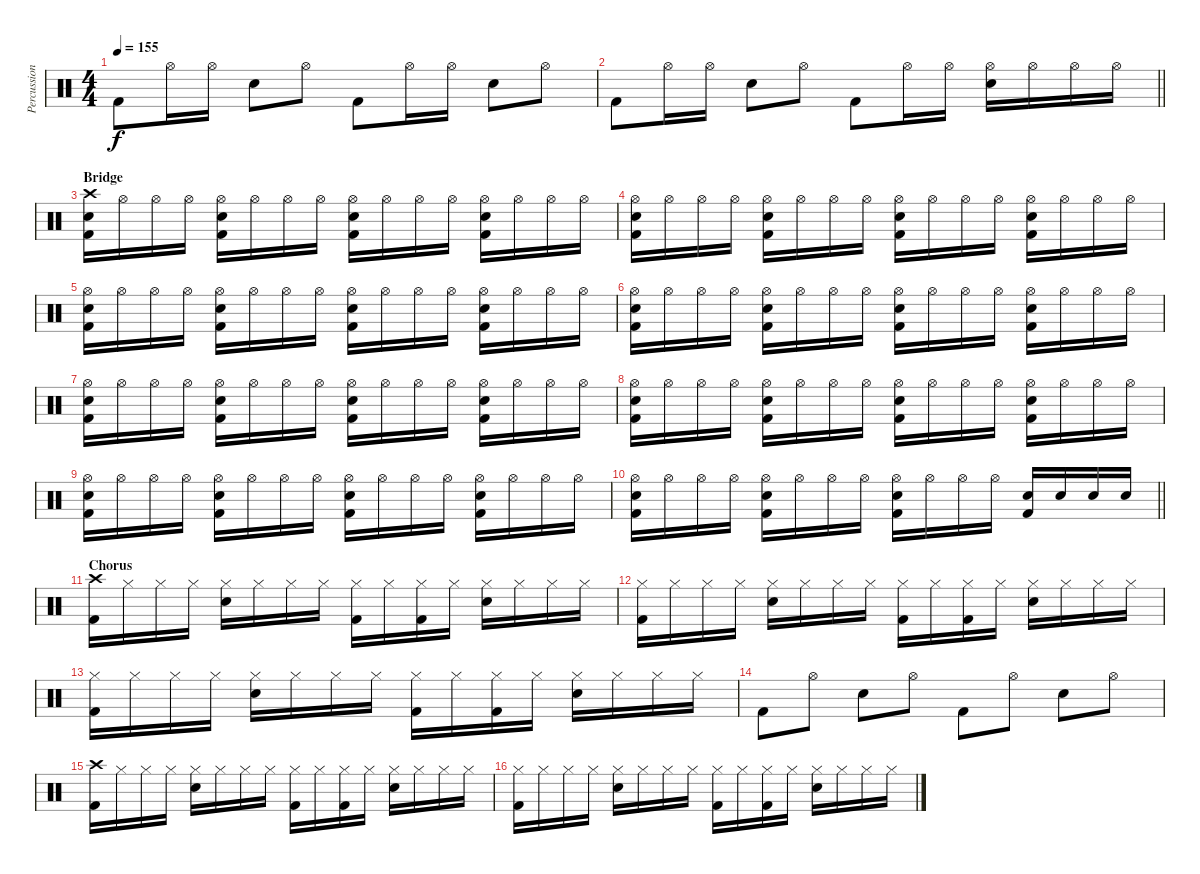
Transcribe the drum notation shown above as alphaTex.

\track ("Percussioni" "Percussion") {instrument percussion}
\staff {score}
\articulation defaults
\ts (4 4)
\tempo 155
\clef neutral
\ks c "Kick (hit) 2".8{dy f} "Hi-Hat (open)".16 "Hi-Hat (open)".16 "Snare (hit) 2".8 "Hi-Hat (open)".8 "Kick (hit) 2".8 "Hi-Hat (open)".16 "Hi-Hat (open)".16 "Snare (hit) 2".8 "Hi-Hat (open)".8
|
\barLineRight lightlight "Kick (hit) 2".8 "Hi-Hat (open)".16 "Hi-Hat (open)".16 "Snare (hit) 2".8 "Hi-Hat (open)".8 "Kick (hit) 2".8 "Hi-Hat (open)".16 "Hi-Hat (open)".16
("Hi-Hat (open)" "Snare (hit) 2").16 "Hi-Hat (open)".16 "Hi-Hat (open)".16 "Hi-Hat (open)".16 |
\section ("" "Bridge")
("Crash high (hit)" "Snare (hit) 2" "Kick (hit) 2").16 "Hi-Hat (open)".16 "Hi-Hat (open)".16 "Hi-Hat (open)".16 ("Hi-Hat (open)" "Snare (hit) 2" "Kick (hit) 2").16 "Hi-Hat (open)".16 "Hi-Hat (open)".16 "Hi-Hat (open)".16 ("Hi-Hat (open)" "Snare (hit) 2" "Kick (hit) 2").16 "Hi-Hat (open)".16 "Hi-Hat (open)".16 "Hi-Hat (open)".16 ("Hi-Hat (open)" "Snare (hit) 2" "Kick (hit) 2").16 "Hi-Hat (open)".16 "Hi-Hat (open)".16 "Hi-Hat (open)".16 |
("Hi-Hat (open)" "Snare (hit) 2" "Kick (hit) 2").16 "Hi-Hat (open)".16 "Hi-Hat (open)".16 "Hi-Hat (open)".16 ("Hi-Hat (open)" "Snare (hit) 2" "Kick (hit) 2").16 "Hi-Hat (open)".16 "Hi-Hat (open)".16 "Hi-Hat (open)".16 ("Hi-Hat (open)" "Snare (hit) 2" "Kick (hit) 2").16 "Hi-Hat (open)".16 "Hi-Hat (open)".16 "Hi-Hat (open)".16 ("Hi-Hat (open)" "Snare (hit) 2" "Kick (hit) 2").16 "Hi-Hat (open)".16 "Hi-Hat (open)".16 "Hi-Hat (open)".16 |
("Hi-Hat (open)" "Snare (hit) 2" "Kick (hit) 2").16 "Hi-Hat (open)".16 "Hi-Hat (open)".16 "Hi-Hat (open)".16 ("Hi-Hat (open)" "Snare (hit) 2" "Kick (hit) 2").16 "Hi-Hat (open)".16 "Hi-Hat (open)".16 "Hi-Hat (open)".16 ("Hi-Hat (open)" "Snare (hit) 2" "Kick (hit) 2").16 "Hi-Hat (open)".16 "Hi-Hat (open)".16 "Hi-Hat (open)".16 ("Hi-Hat (open)" "Snare (hit) 2" "Kick (hit) 2").16 "Hi-Hat (open)".16 "Hi-Hat (open)".16 "Hi-Hat (open)".16 |
("Hi-Hat (open)" "Snare (hit) 2" "Kick (hit) 2").16 "Hi-Hat (open)".16 "Hi-Hat (open)".16 "Hi-Hat (open)".16 ("Hi-Hat (open)" "Snare (hit) 2" "Kick (hit) 2").16 "Hi-Hat (open)".16 "Hi-Hat (open)".16 "Hi-Hat (open)".16 ("Hi-Hat (open)" "Snare (hit) 2" "Kick (hit) 2").16 "Hi-Hat (open)".16 "Hi-Hat (open)".16 "Hi-Hat (open)".16 ("Hi-Hat (open)" "Snare (hit) 2" "Kick (hit) 2").16 "Hi-Hat (open)".16 "Hi-Hat (open)".16 "Hi-Hat (open)".16 |
("Hi-Hat (open)" "Snare (hit) 2" "Kick (hit) 2").16 "Hi-Hat (open)".16 "Hi-Hat (open)".16 "Hi-Hat (open)".16 ("Hi-Hat (open)" "Snare (hit) 2" "Kick (hit) 2").16 "Hi-Hat (open)".16 "Hi-Hat (open)".16 "Hi-Hat (open)".16 ("Hi-Hat (open)" "Snare (hit) 2" "Kick (hit) 2").16 "Hi-Hat (open)".16 "Hi-Hat (open)".16 "Hi-Hat (open)".16 ("Hi-Hat (open)" "Snare (hit) 2" "Kick (hit) 2").16 "Hi-Hat (open)".16 "Hi-Hat (open)".16 "Hi-Hat (open)".16 |
("Hi-Hat (open)" "Snare (hit) 2" "Kick (hit) 2").16 "Hi-Hat (open)".16 "Hi-Hat (open)".16 "Hi-Hat (open)".16 ("Hi-Hat (open)" "Snare (hit) 2" "Kick (hit) 2").16 "Hi-Hat (open)".16 "Hi-Hat (open)".16 "Hi-Hat (open)".16 ("Hi-Hat (open)" "Snare (hit) 2" "Kick (hit) 2").16 "Hi-Hat (open)".16 "Hi-Hat (open)".16 "Hi-Hat (open)".16 ("Hi-Hat (open)" "Snare (hit) 2" "Kick (hit) 2").16 "Hi-Hat (open)".16 "Hi-Hat (open)".16 "Hi-Hat (open)".16 |
("Hi-Hat (open)" "Snare (hit) 2" "Kick (hit) 2").16 "Hi-Hat (open)".16 "Hi-Hat (open)".16 "Hi-Hat (open)".16 ("Hi-Hat (open)" "Snare (hit) 2" "Kick (hit) 2").16 "Hi-Hat (open)".16 "Hi-Hat (open)".16 "Hi-Hat (open)".16 ("Hi-Hat (open)" "Snare (hit) 2" "Kick (hit) 2").16 "Hi-Hat (open)".16 "Hi-Hat (open)".16 "Hi-Hat (open)".16 ("Hi-Hat (open)" "Snare (hit) 2" "Kick (hit) 2").16 "Hi-Hat (open)".16 "Hi-Hat (open)".16 "Hi-Hat (open)".16 |
\barLineRight lightlight
("Hi-Hat (open)" "Snare (hit) 2" "Kick (hit) 2").16 "Hi-Hat (open)".16 "Hi-Hat (open)".16 "Hi-Hat (open)".16 ("Hi-Hat (open)" "Snare (hit) 2" "Kick (hit) 2").16 "Hi-Hat (open)".16 "Hi-Hat (open)".16 "Hi-Hat (open)".16 ("Hi-Hat (open)" "Snare (hit) 2" "Kick (hit) 2").16 "Hi-Hat (open)".16 "Hi-Hat (open)".16 "Hi-Hat (open)".16 ("Snare (hit) 2" "Kick (hit) 2").16 "Snare (hit) 2".16 "Snare (hit) 2".16 "Snare (hit) 2".16 |
\section ("" "Chorus")
("Crash high (hit)" "Kick (hit) 2").16 "Hi-Hat (closed)".16 "Hi-Hat (closed)".16 "Hi-Hat (closed)".16 ("Hi-Hat (closed)" "Snare (hit) 2").16 "Hi-Hat (closed)".16 "Hi-Hat (closed)".16 "Hi-Hat (closed)".16 ("Hi-Hat (closed)" "Kick (hit) 2").16 "Hi-Hat (closed)".16 ("Hi-Hat (closed)" "Kick (hit) 2").16 "Hi-Hat (closed)".16 ("Hi-Hat (closed)" "Snare (hit) 2").16 "Hi-Hat (closed)".16 "Hi-Hat (closed)".16 "Hi-Hat (closed)".16 |
("Hi-Hat (closed)" "Kick (hit) 2").16 "Hi-Hat (closed)".16 "Hi-Hat (closed)".16 "Hi-Hat (closed)".16 ("Hi-Hat (closed)" "Snare (hit) 2").16 "Hi-Hat (closed)".16 "Hi-Hat (closed)".16 "Hi-Hat (closed)".16 ("Hi-Hat (closed)" "Kick (hit) 2").16 "Hi-Hat (closed)".16 ("Hi-Hat (closed)" "Kick (hit) 2").16 "Hi-Hat (closed)".16 ("Hi-Hat (closed)" "Snare (hit) 2").16 "Hi-Hat (closed)".16 "Hi-Hat (closed)".16 "Hi-Hat (closed)".16 |
("Hi-Hat (closed)" "Kick (hit) 2").16 "Hi-Hat (closed)".16 "Hi-Hat (closed)".16 "Hi-Hat (closed)".16 ("Hi-Hat (closed)" "Snare (hit) 2").16 "Hi-Hat (closed)".16 "Hi-Hat (closed)".16 "Hi-Hat (closed)".16 ("Hi-Hat (closed)" "Kick (hit) 2").16 "Hi-Hat (closed)".16 ("Hi-Hat (closed)" "Kick (hit) 2").16 "Hi-Hat (closed)".16 ("Hi-Hat (closed)" "Snare (hit) 2").16 "Hi-Hat (closed)".16 "Hi-Hat (closed)".16 "Hi-Hat (closed)".16 |
"Kick (hit) 2".8 "Hi-Hat (open)".8 "Snare (hit) 2".8 "Hi-Hat (open)".8 "Kick (hit) 2".8 "Hi-Hat (open)".8 "Snare (hit) 2".8 "Hi-Hat (open)".8 |
("Crash high (hit)" "Kick (hit) 2").16 "Hi-Hat (closed)".16 "Hi-Hat (closed)".16 "Hi-Hat (closed)".16 ("Hi-Hat (closed)" "Snare (hit) 2").16 "Hi-Hat (closed)".16 "Hi-Hat (closed)".16 "Hi-Hat (closed)".16 ("Hi-Hat (closed)" "Kick (hit) 2").16 "Hi-Hat (closed)".16 ("Hi-Hat (closed)" "Kick (hit) 2").16 "Hi-Hat (closed)".16 ("Hi-Hat (closed)" "Snare (hit) 2").16 "Hi-Hat (closed)".16 "Hi-Hat (closed)".16 "Hi-Hat (closed)".16 |
("Hi-Hat (closed)" "Kick (hit) 2").16 "Hi-Hat (closed)".16 "Hi-Hat (closed)".16 "Hi-Hat (closed)".16 ("Hi-Hat (closed)" "Snare (hit) 2").16 "Hi-Hat (closed)".16 "Hi-Hat (closed)".16 "Hi-Hat (closed)".16 ("Hi-Hat (closed)" "Kick (hit) 2").16 "Hi-Hat (closed)".16 ("Hi-Hat (closed)" "Kick (hit) 2").16 "Hi-Hat (closed)".16 ("Hi-Hat (closed)" "Snare (hit) 2").16 "Hi-Hat (closed)".16 "Hi-Hat (closed)".16 "Hi-Hat (closed)".16
